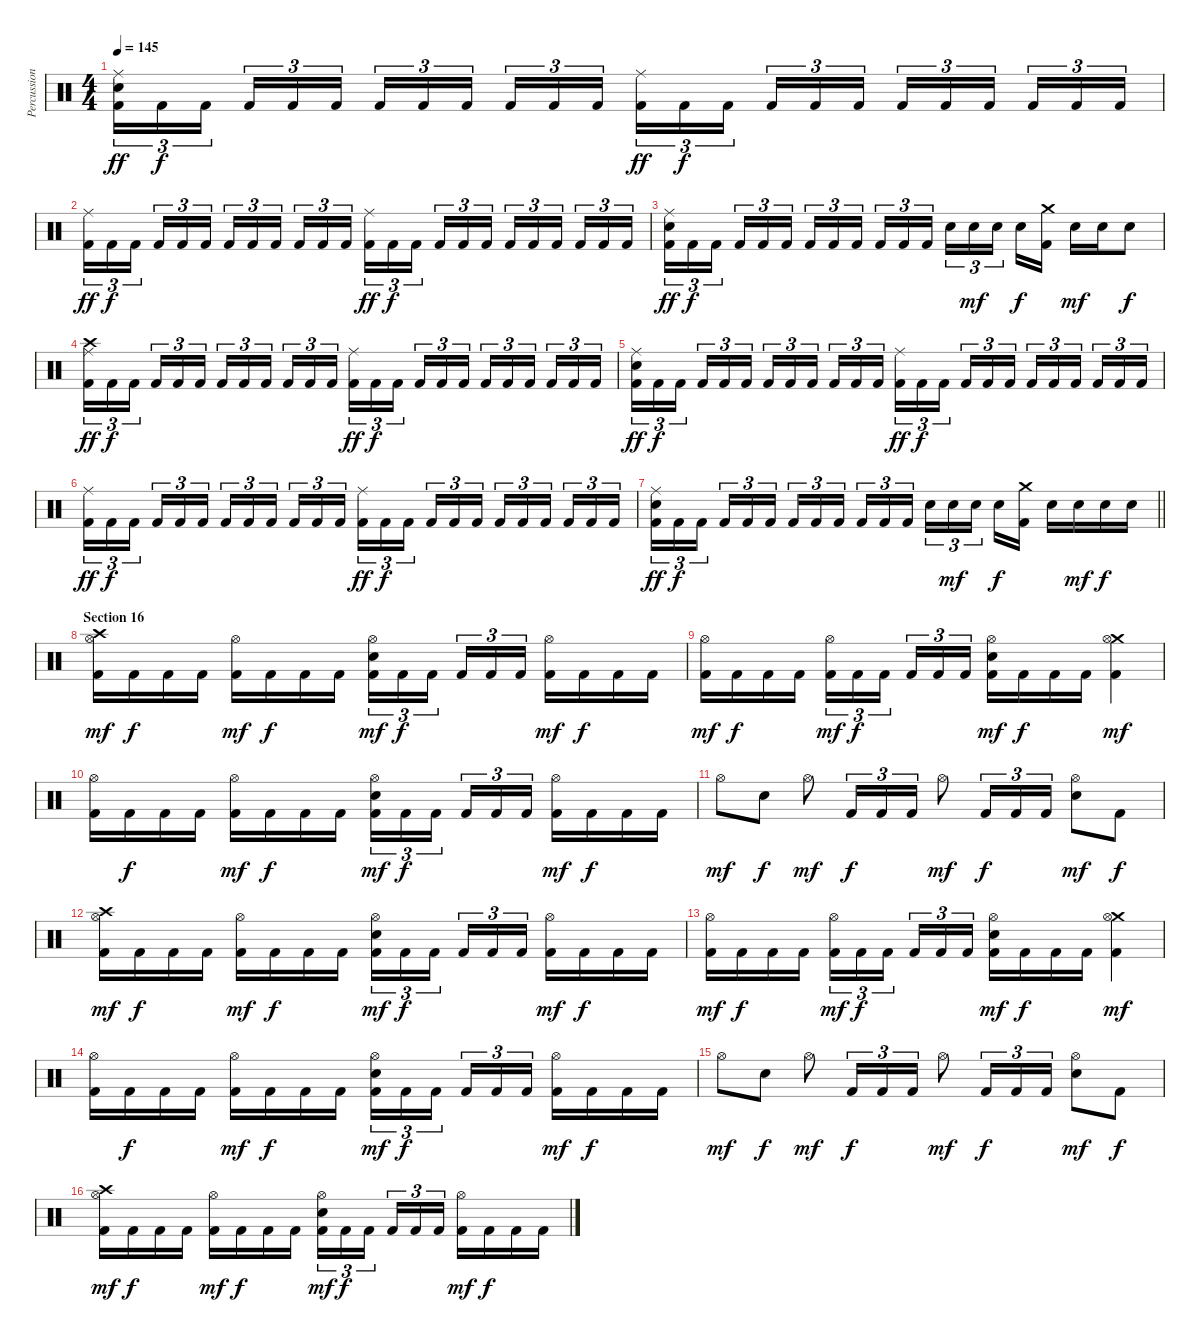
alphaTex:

\track ("Percussion" "Percussion") {instrument percussion}
\staff {score}
\articulation defaults
\ts (4 4)
\tempo 145
\clef neutral
\ks c
("Ride (middle)" "Electric Snare (hit)" "Kick (hit) 2").16{tu (3 2) dy ff} "Kick (hit) 2".16{tu (3 2) dy f} "Kick (hit) 2".16{tu (3 2) beam splitsecondary} "Kick (hit) 2".16{tu (3 2)} "Kick (hit) 2".16{tu (3 2)} "Kick (hit) 2".16{tu (3 2)} "Kick (hit) 2".16{tu (3 2)} "Kick (hit) 2".16{tu (3 2)} "Kick (hit) 2".16{tu (3 2) beam splitsecondary} "Kick (hit) 2".16{tu (3 2)} "Kick (hit) 2".16{tu (3 2)} "Kick (hit) 2".16{tu (3 2)} ("Ride (middle)" "Kick (hit) 2").16{tu (3 2) dy ff} "Kick (hit) 2".16{tu (3 2) dy f} "Kick (hit) 2".16{tu (3 2) beam splitsecondary} "Kick (hit) 2".16{tu (3 2)} "Kick (hit) 2".16{tu (3 2)} "Kick (hit) 2".16{tu (3 2)} "Kick (hit) 2".16{tu (3 2)} "Kick (hit) 2".16{tu (3 2)} "Kick (hit) 2".16{tu (3 2) beam splitsecondary} "Kick (hit) 2".16{tu (3 2)} "Kick (hit) 2".16{tu (3 2)} "Kick (hit) 2".16{tu (3 2)} |
("Ride (middle)" "Kick (hit) 2").16{tu (3 2) dy ff} "Kick (hit) 2".16{tu (3 2) dy f} "Kick (hit) 2".16{tu (3 2) beam splitsecondary} "Kick (hit) 2".16{tu (3 2)} "Kick (hit) 2".16{tu (3 2)} "Kick (hit) 2".16{tu (3 2)} "Kick (hit) 2".16{tu (3 2)} "Kick (hit) 2".16{tu (3 2)} "Kick (hit) 2".16{tu (3 2) beam splitsecondary} "Kick (hit) 2".16{tu (3 2)} "Kick (hit) 2".16{tu (3 2)} "Kick (hit) 2".16{tu (3 2)} ("Ride (middle)" "Kick (hit) 2").16{tu (3 2) dy ff} "Kick (hit) 2".16{tu (3 2) dy f} "Kick (hit) 2".16{tu (3 2) beam splitsecondary} "Kick (hit) 2".16{tu (3 2)} "Kick (hit) 2".16{tu (3 2)} "Kick (hit) 2".16{tu (3 2)} "Kick (hit) 2".16{tu (3 2)} "Kick (hit) 2".16{tu (3 2)} "Kick (hit) 2".16{tu (3 2) beam splitsecondary} "Kick (hit) 2".16{tu (3 2)} "Kick (hit) 2".16{tu (3 2)} "Kick (hit) 2".16{tu (3 2)} |
("Ride (middle)" "Electric Snare (hit)" "Kick (hit) 2").16{tu (3 2) dy ff} "Kick (hit) 2".16{tu (3 2) dy f} "Kick (hit) 2".16{tu (3 2) beam splitsecondary} "Kick (hit) 2".16{tu (3 2)} "Kick (hit) 2".16{tu (3 2)} "Kick (hit) 2".16{tu (3 2)} "Kick (hit) 2".16{tu (3 2)} "Kick (hit) 2".16{tu (3 2)} "Kick (hit) 2".16{tu (3 2) beam splitsecondary} "Kick (hit) 2".16{tu (3 2)} "Kick (hit) 2".16{tu (3 2)} "Kick (hit) 2".16{tu (3 2)} "Electric Snare (hit)".16{tu (3 2)} "Electric Snare (hit)".16{tu (3 2) dy mf} "Electric Snare (hit)".16{tu (3 2) beam splitsecondary} "Electric Snare (hit)".16{dy f} ("Crash medium (hit)" "Kick (hit) 2").16 "Electric Snare (hit)".16{dy mf} "Electric Snare (hit)".16 "Electric Snare (hit)".8{dy f} |
("Crash high (hit)" "Ride (middle)" "Kick (hit) 2").16{tu (3 2) dy ff} "Kick (hit) 2".16{tu (3 2) dy f} "Kick (hit) 2".16{tu (3 2) beam splitsecondary} "Kick (hit) 2".16{tu (3 2)} "Kick (hit) 2".16{tu (3 2)} "Kick (hit) 2".16{tu (3 2)} "Kick (hit) 2".16{tu (3 2)} "Kick (hit) 2".16{tu (3 2)} "Kick (hit) 2".16{tu (3 2) beam splitsecondary} "Kick (hit) 2".16{tu (3 2)} "Kick (hit) 2".16{tu (3 2)} "Kick (hit) 2".16{tu (3 2)} ("Ride (middle)" "Kick (hit) 2").16{tu (3 2) dy ff} "Kick (hit) 2".16{tu (3 2) dy f} "Kick (hit) 2".16{tu (3 2) beam splitsecondary} "Kick (hit) 2".16{tu (3 2)} "Kick (hit) 2".16{tu (3 2)} "Kick (hit) 2".16{tu (3 2)} "Kick (hit) 2".16{tu (3 2)} "Kick (hit) 2".16{tu (3 2)} "Kick (hit) 2".16{tu (3 2) beam splitsecondary} "Kick (hit) 2".16{tu (3 2)} "Kick (hit) 2".16{tu (3 2)} "Kick (hit) 2".16{tu (3 2)} |
("Ride (middle)" "Electric Snare (hit)" "Kick (hit) 2").16{tu (3 2) dy ff} "Kick (hit) 2".16{tu (3 2) dy f} "Kick (hit) 2".16{tu (3 2) beam splitsecondary} "Kick (hit) 2".16{tu (3 2)} "Kick (hit) 2".16{tu (3 2)} "Kick (hit) 2".16{tu (3 2)} "Kick (hit) 2".16{tu (3 2)} "Kick (hit) 2".16{tu (3 2)} "Kick (hit) 2".16{tu (3 2) beam splitsecondary} "Kick (hit) 2".16{tu (3 2)} "Kick (hit) 2".16{tu (3 2)} "Kick (hit) 2".16{tu (3 2)} ("Ride (middle)" "Kick (hit) 2").16{tu (3 2) dy ff} "Kick (hit) 2".16{tu (3 2) dy f} "Kick (hit) 2".16{tu (3 2) beam splitsecondary} "Kick (hit) 2".16{tu (3 2)} "Kick (hit) 2".16{tu (3 2)} "Kick (hit) 2".16{tu (3 2)} "Kick (hit) 2".16{tu (3 2)} "Kick (hit) 2".16{tu (3 2)} "Kick (hit) 2".16{tu (3 2) beam splitsecondary} "Kick (hit) 2".16{tu (3 2)} "Kick (hit) 2".16{tu (3 2)} "Kick (hit) 2".16{tu (3 2)} |
("Ride (middle)" "Kick (hit) 2").16{tu (3 2) dy ff} "Kick (hit) 2".16{tu (3 2) dy f} "Kick (hit) 2".16{tu (3 2) beam splitsecondary} "Kick (hit) 2".16{tu (3 2)} "Kick (hit) 2".16{tu (3 2)} "Kick (hit) 2".16{tu (3 2)} "Kick (hit) 2".16{tu (3 2)} "Kick (hit) 2".16{tu (3 2)} "Kick (hit) 2".16{tu (3 2) beam splitsecondary} "Kick (hit) 2".16{tu (3 2)} "Kick (hit) 2".16{tu (3 2)} "Kick (hit) 2".16{tu (3 2)} ("Ride (middle)" "Kick (hit) 2").16{tu (3 2) dy ff} "Kick (hit) 2".16{tu (3 2) dy f} "Kick (hit) 2".16{tu (3 2) beam splitsecondary} "Kick (hit) 2".16{tu (3 2)} "Kick (hit) 2".16{tu (3 2)} "Kick (hit) 2".16{tu (3 2)} "Kick (hit) 2".16{tu (3 2)} "Kick (hit) 2".16{tu (3 2)} "Kick (hit) 2".16{tu (3 2) beam splitsecondary} "Kick (hit) 2".16{tu (3 2)} "Kick (hit) 2".16{tu (3 2)} "Kick (hit) 2".16{tu (3 2)} |
\barLineRight lightlight
("Ride (middle)" "Electric Snare (hit)" "Kick (hit) 2").16{tu (3 2) dy ff} "Kick (hit) 2".16{tu (3 2) dy f} "Kick (hit) 2".16{tu (3 2) beam splitsecondary} "Kick (hit) 2".16{tu (3 2)} "Kick (hit) 2".16{tu (3 2)} "Kick (hit) 2".16{tu (3 2)} "Kick (hit) 2".16{tu (3 2)} "Kick (hit) 2".16{tu (3 2)} "Kick (hit) 2".16{tu (3 2) beam splitsecondary} "Kick (hit) 2".16{tu (3 2)} "Kick (hit) 2".16{tu (3 2)} "Kick (hit) 2".16{tu (3 2)} "Electric Snare (hit)".16{tu (3 2)} "Electric Snare (hit)".16{tu (3 2) dy mf} "Electric Snare (hit)".16{tu (3 2) beam splitsecondary} "Electric Snare (hit)".16{dy f} ("Crash medium (hit)" "Kick (hit) 2").16 "Electric Snare (hit)".16 "Electric Snare (hit)".16{dy mf} "Electric Snare (hit)".16{dy f} "Electric Snare (hit)".16 |
\section ("" "Section 16")
("Crash high (hit)" "Hi-Hat (open)" "Kick (hit) 2").16{dy mf} "Kick (hit) 2".16{dy f} "Kick (hit) 2".16 "Kick (hit) 2".16 ("Hi-Hat (open)" "Kick (hit) 2").16{dy mf} "Kick (hit) 2".16{dy f} "Kick (hit) 2".16 "Kick (hit) 2".16 ("Hi-Hat (open)" "Electric Snare (hit)" "Kick (hit) 2").16{tu (3 2) dy mf} "Kick (hit) 2".16{tu (3 2) dy f} "Kick (hit) 2".16{tu (3 2) beam splitsecondary} "Kick (hit) 2".16{tu (3 2)} "Kick (hit) 2".16{tu (3 2)} "Kick (hit) 2".16{tu (3 2)} ("Hi-Hat (open)" "Kick (hit) 2").16{dy mf} "Kick (hit) 2".16{dy f} "Kick (hit) 2".16 "Kick (hit) 2".16 |
("Hi-Hat (open)" "Kick (hit) 2").16{dy mf} "Kick (hit) 2".16{dy f} "Kick (hit) 2".16 "Kick (hit) 2".16 ("Hi-Hat (open)" "Kick (hit) 2").16{tu (3 2) dy mf} "Kick (hit) 2".16{tu (3 2) dy f} "Kick (hit) 2".16{tu (3 2) beam splitsecondary} "Kick (hit) 2".16{tu (3 2)} "Kick (hit) 2".16{tu (3 2)} "Kick (hit) 2".16{tu (3 2)} ("Hi-Hat (open)" "Electric Snare (hit)" "Kick (hit) 2").16{dy mf} "Kick (hit) 2".16{dy f} "Kick (hit) 2".16 "Kick (hit) 2".16 ("Crash medium (hit)" "Hi-Hat (open)" "Kick (hit) 2").4{dy mf} |
("Hi-Hat (open)" "Kick (hit) 2").16 "Kick (hit) 2".16{dy f} "Kick (hit) 2".16 "Kick (hit) 2".16 ("Hi-Hat (open)" "Kick (hit) 2").16{dy mf} "Kick (hit) 2".16{dy f} "Kick (hit) 2".16 "Kick (hit) 2".16 ("Hi-Hat (open)" "Electric Snare (hit)" "Kick (hit) 2").16{tu (3 2) dy mf} "Kick (hit) 2".16{tu (3 2) dy f} "Kick (hit) 2".16{tu (3 2) beam splitsecondary} "Kick (hit) 2".16{tu (3 2)} "Kick (hit) 2".16{tu (3 2)} "Kick (hit) 2".16{tu (3 2)} ("Hi-Hat (open)" "Kick (hit) 2").16{dy mf} "Kick (hit) 2".16{dy f} "Kick (hit) 2".16 "Kick (hit) 2".16 |
"Hi-Hat (open)".8{dy mf} "Electric Snare (hit)".8{dy f} "Hi-Hat (open)".8{dy mf} "Kick (hit) 2".16{tu (3 2) dy f} "Kick (hit) 2".16{tu (3 2)} "Kick (hit) 2".16{tu (3 2)} "Hi-Hat (open)".8{dy mf} "Kick (hit) 2".16{tu (3 2) dy f} "Kick (hit) 2".16{tu (3 2)} "Kick (hit) 2".16{tu (3 2)} ("Hi-Hat (open)" "Electric Snare (hit)").8{dy mf} "Kick (hit) 2".8{dy f} |
("Crash high (hit)" "Hi-Hat (open)" "Kick (hit) 2").16{dy mf} "Kick (hit) 2".16{dy f} "Kick (hit) 2".16 "Kick (hit) 2".16 ("Hi-Hat (open)" "Kick (hit) 2").16{dy mf} "Kick (hit) 2".16{dy f} "Kick (hit) 2".16 "Kick (hit) 2".16 ("Hi-Hat (open)" "Electric Snare (hit)" "Kick (hit) 2").16{tu (3 2) dy mf} "Kick (hit) 2".16{tu (3 2) dy f} "Kick (hit) 2".16{tu (3 2) beam splitsecondary} "Kick (hit) 2".16{tu (3 2)} "Kick (hit) 2".16{tu (3 2)} "Kick (hit) 2".16{tu (3 2)} ("Hi-Hat (open)" "Kick (hit) 2").16{dy mf} "Kick (hit) 2".16{dy f} "Kick (hit) 2".16 "Kick (hit) 2".16 |
("Hi-Hat (open)" "Kick (hit) 2").16{dy mf} "Kick (hit) 2".16{dy f} "Kick (hit) 2".16 "Kick (hit) 2".16 ("Hi-Hat (open)" "Kick (hit) 2").16{tu (3 2) dy mf} "Kick (hit) 2".16{tu (3 2) dy f} "Kick (hit) 2".16{tu (3 2) beam splitsecondary} "Kick (hit) 2".16{tu (3 2)} "Kick (hit) 2".16{tu (3 2)} "Kick (hit) 2".16{tu (3 2)} ("Hi-Hat (open)" "Electric Snare (hit)" "Kick (hit) 2").16{dy mf} "Kick (hit) 2".16{dy f} "Kick (hit) 2".16 "Kick (hit) 2".16 ("Crash medium (hit)" "Hi-Hat (open)" "Kick (hit) 2").4{dy mf} |
("Hi-Hat (open)" "Kick (hit) 2").16 "Kick (hit) 2".16{dy f} "Kick (hit) 2".16 "Kick (hit) 2".16 ("Hi-Hat (open)" "Kick (hit) 2").16{dy mf} "Kick (hit) 2".16{dy f} "Kick (hit) 2".16 "Kick (hit) 2".16 ("Hi-Hat (open)" "Electric Snare (hit)" "Kick (hit) 2").16{tu (3 2) dy mf} "Kick (hit) 2".16{tu (3 2) dy f} "Kick (hit) 2".16{tu (3 2) beam splitsecondary} "Kick (hit) 2".16{tu (3 2)} "Kick (hit) 2".16{tu (3 2)} "Kick (hit) 2".16{tu (3 2)} ("Hi-Hat (open)" "Kick (hit) 2").16{dy mf} "Kick (hit) 2".16{dy f} "Kick (hit) 2".16 "Kick (hit) 2".16 |
"Hi-Hat (open)".8{dy mf} "Electric Snare (hit)".8{dy f} "Hi-Hat (open)".8{dy mf} "Kick (hit) 2".16{tu (3 2) dy f} "Kick (hit) 2".16{tu (3 2)} "Kick (hit) 2".16{tu (3 2)} "Hi-Hat (open)".8{dy mf} "Kick (hit) 2".16{tu (3 2) dy f} "Kick (hit) 2".16{tu (3 2)} "Kick (hit) 2".16{tu (3 2)} ("Hi-Hat (open)" "Electric Snare (hit)").8{dy mf} "Kick (hit) 2".8{dy f} |
("Crash high (hit)" "Hi-Hat (open)" "Kick (hit) 2").16{dy mf} "Kick (hit) 2".16{dy f} "Kick (hit) 2".16 "Kick (hit) 2".16 ("Hi-Hat (open)" "Kick (hit) 2").16{dy mf} "Kick (hit) 2".16{dy f} "Kick (hit) 2".16 "Kick (hit) 2".16 ("Hi-Hat (open)" "Electric Snare (hit)" "Kick (hit) 2").16{tu (3 2) dy mf} "Kick (hit) 2".16{tu (3 2) dy f} "Kick (hit) 2".16{tu (3 2) beam splitsecondary} "Kick (hit) 2".16{tu (3 2)} "Kick (hit) 2".16{tu (3 2)} "Kick (hit) 2".16{tu (3 2)} ("Hi-Hat (open)" "Kick (hit) 2").16{dy mf} "Kick (hit) 2".16{dy f} "Kick (hit) 2".16 "Kick (hit) 2".16
